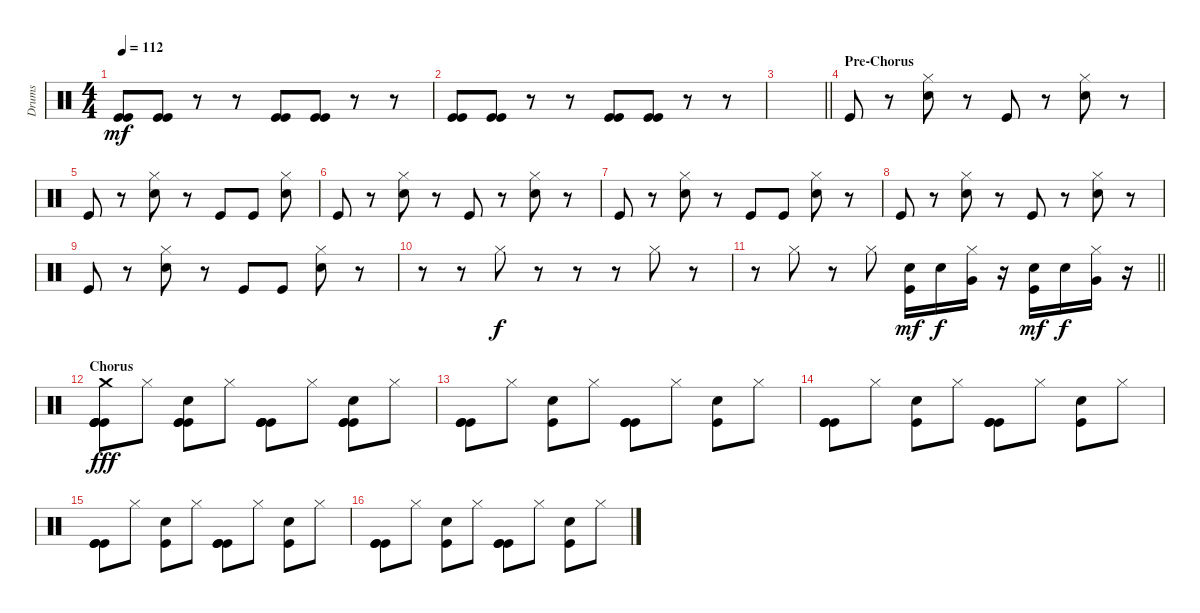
\track ("Drums" "Drums") {instrument percussion}
\staff {score}
\articulation defaults
\ts (4 4)
\tempo 112
\clef neutral
\ks c
("Kick (hit)" "Kick (hit)").8{dy mf} ("Kick (hit)" "Kick (hit)").8 r.8 r.8 ("Kick (hit)" "Kick (hit)").8 ("Kick (hit)" "Kick (hit)").8 r.8 r.8 |
("Kick (hit)" "Kick (hit)").8 ("Kick (hit)" "Kick (hit)").8 r.8 r.8 ("Kick (hit)" "Kick (hit)").8 ("Kick (hit)" "Kick (hit)").8 r.8 r.8 |
\barLineRight lightlight
|
\section ("" "Pre-Chorus")
"Kick (hit)".8 r.8 ("Hi-Hat (closed)" "Snare (hit) 2").8 r.8 "Kick (hit)".8 r.8 ("Hi-Hat (closed)" "Snare (hit) 2").8 r.8 |
"Kick (hit)".8 r.8 ("Hi-Hat (closed)" "Snare (hit) 2").8 r.8 "Kick (hit)".8 "Kick (hit)".8 ("Hi-Hat (closed)" "Snare (hit) 2").8 |
"Kick (hit)".8 r.8 ("Hi-Hat (closed)" "Snare (hit) 2").8 r.8 "Kick (hit)".8 r.8 ("Hi-Hat (closed)" "Snare (hit) 2").8 r.8 |
"Kick (hit)".8 r.8 ("Hi-Hat (closed)" "Snare (hit) 2").8 r.8 "Kick (hit)".8 "Kick (hit)".8 ("Hi-Hat (closed)" "Snare (hit) 2").8 r.8 |
"Kick (hit)".8 r.8 ("Hi-Hat (closed)" "Snare (hit) 2").8 r.8 "Kick (hit)".8 r.8 ("Hi-Hat (closed)" "Snare (hit) 2").8 r.8 |
"Kick (hit)".8 r.8 ("Hi-Hat (closed)" "Snare (hit) 2").8 r.8 "Kick (hit)".8 "Kick (hit)".8 ("Hi-Hat (closed)" "Snare (hit) 2").8 r.8 |
r.8 r.8 "Hi-Hat (closed)".8{dy f} r.8 r.8 r.8 "Hi-Hat (closed)".8 r.8 |
\barLineRight lightlight
r.8 "Hi-Hat (closed)".8 r.8 "Hi-Hat (closed)".8 ("Snare (hit) 2" "Kick (hit)").16{dy mf} "Snare (hit) 2".16{dy f} ("Hi-Hat (closed)" "Very Low Tom (hit)").16 r.16 ("Snare (hit) 2" "Kick (hit)").16{dy mf} "Snare (hit) 2".16{dy f} ("Hi-Hat (closed)" "Very Low Tom (hit)").16 r.16 |
\section ("" "Chorus")
("Crash medium (hit)" "Kick (hit)" "Kick (hit)" "Kick (hit)" "Kick (hit)").8{dy fff} "Hi-Hat (closed)".8 ("Snare (hit) 2" "Kick (hit)" "Kick (hit)" "Kick (hit)").8 "Hi-Hat (closed)".8 ("Kick (hit)" "Kick (hit)" "Kick (hit)" "Kick (hit)").8 "Hi-Hat (closed)".8 ("Snare (hit) 2" "Kick (hit)" "Kick (hit)" "Kick (hit)").8 "Hi-Hat (closed)".8 |
("Kick (hit)" "Kick (hit)" "Kick (hit)").8 "Hi-Hat (closed)".8 ("Snare (hit) 2" "Kick (hit)").8 "Hi-Hat (closed)".8 ("Kick (hit)" "Kick (hit)" "Kick (hit)").8 "Hi-Hat (closed)".8 ("Snare (hit) 2" "Kick (hit)").8 "Hi-Hat (closed)".8 |
("Kick (hit)" "Kick (hit)" "Kick (hit)").8 "Hi-Hat (closed)".8 ("Snare (hit) 2" "Kick (hit)").8 "Hi-Hat (closed)".8 ("Kick (hit)" "Kick (hit)" "Kick (hit)").8 "Hi-Hat (closed)".8 ("Snare (hit) 2" "Kick (hit)").8 "Hi-Hat (closed)".8 |
("Kick (hit)" "Kick (hit)" "Kick (hit)").8 "Hi-Hat (closed)".8 ("Snare (hit) 2" "Kick (hit)").8 "Hi-Hat (closed)".8 ("Kick (hit)" "Kick (hit)" "Kick (hit)").8 "Hi-Hat (closed)".8 ("Snare (hit) 2" "Kick (hit)").8 "Hi-Hat (closed)".8 |
("Kick (hit)" "Kick (hit)" "Kick (hit)").8 "Hi-Hat (closed)".8 ("Snare (hit) 2" "Kick (hit)").8 "Hi-Hat (closed)".8 ("Kick (hit)" "Kick (hit)" "Kick (hit)").8 "Hi-Hat (closed)".8 ("Snare (hit) 2" "Kick (hit)").8 "Hi-Hat (closed)".8
